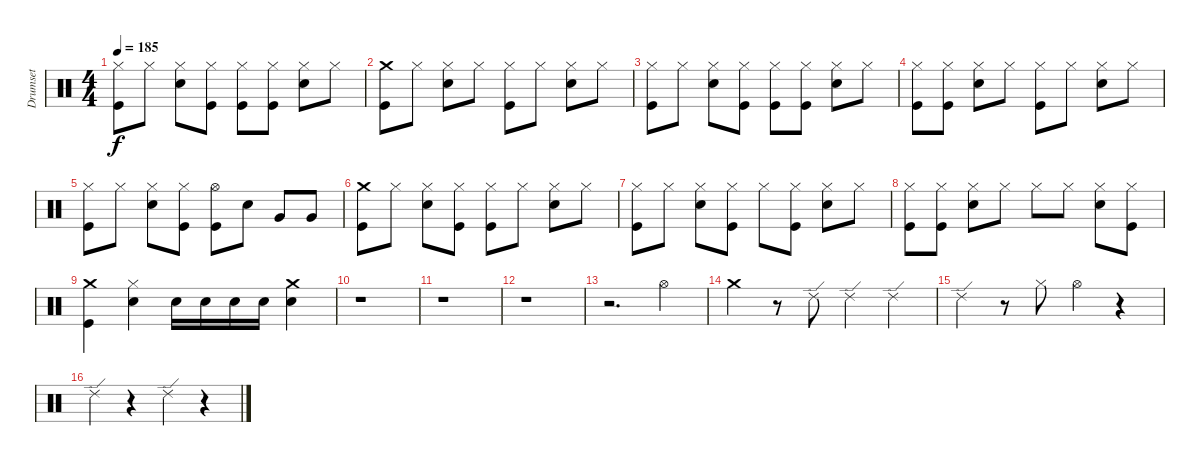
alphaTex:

\track ("Drumset" "Drumset") {instrument percussion}
\staff {score}
\articulation defaults
\ts (4 4)
\tempo 185
\clef neutral
\ks c
("Hi-Hat (closed)" "Kick (hit)").8{dy f} "Hi-Hat (closed)".8 ("Hi-Hat (closed)" "Snare (hit) 2").8 ("Hi-Hat (closed)" "Kick (hit)").8 ("Hi-Hat (closed)" "Kick (hit)").8 ("Hi-Hat (closed)" "Kick (hit)").8 ("Hi-Hat (closed)" "Snare (hit) 2").8 "Hi-Hat (closed)".8 |
("Crash medium (hit)" "Kick (hit)").8 "Hi-Hat (closed)".8 ("Hi-Hat (closed)" "Snare (hit) 2").8 "Hi-Hat (closed)".8 ("Hi-Hat (closed)" "Kick (hit)").8 "Hi-Hat (closed)".8 ("Hi-Hat (closed)" "Snare (hit) 2").8 "Hi-Hat (closed)".8 |
("Hi-Hat (closed)" "Kick (hit)").8 "Hi-Hat (closed)".8 ("Hi-Hat (closed)" "Snare (hit) 2").8 ("Hi-Hat (closed)" "Kick (hit)").8 ("Hi-Hat (closed)" "Kick (hit)").8 ("Hi-Hat (closed)" "Kick (hit)").8 ("Hi-Hat (closed)" "Snare (hit) 2").8 "Hi-Hat (closed)".8 |
("Hi-Hat (closed)" "Kick (hit)").8 ("Hi-Hat (closed)" "Kick (hit)").8 ("Hi-Hat (closed)" "Snare (hit) 2").8 "Hi-Hat (closed)".8 ("Hi-Hat (closed)" "Kick (hit)").8 "Hi-Hat (closed)".8 ("Hi-Hat (closed)" "Snare (hit) 2").8 "Hi-Hat (closed)".8 |
("Hi-Hat (closed)" "Kick (hit)").8 "Hi-Hat (closed)".8 ("Hi-Hat (closed)" "Snare (hit) 2").8 ("Hi-Hat (closed)" "Kick (hit)").8 ("Hi-Hat (open)" "Kick (hit)").8 "Snare (hit) 2".8 "Very Low Tom (hit)".8 "Very Low Tom (hit)".8 |
("Crash medium (hit)" "Kick (hit)").8 "Hi-Hat (closed)".8 ("Hi-Hat (closed)" "Snare (hit) 2").8 ("Hi-Hat (closed)" "Kick (hit)").8 ("Hi-Hat (closed)" "Kick (hit)").8 "Hi-Hat (closed)".8 ("Hi-Hat (closed)" "Snare (hit) 2").8 "Hi-Hat (closed)".8 |
("Hi-Hat (closed)" "Kick (hit)").8 "Hi-Hat (closed)".8 ("Hi-Hat (closed)" "Snare (hit) 2").8 ("Hi-Hat (closed)" "Kick (hit)").8 "Hi-Hat (closed)".8 ("Hi-Hat (closed)" "Kick (hit)").8 ("Hi-Hat (closed)" "Snare (hit) 2").8 "Hi-Hat (closed)".8 |
("Hi-Hat (closed)" "Kick (hit)").8 ("Hi-Hat (closed)" "Kick (hit)").8 ("Hi-Hat (closed)" "Snare (hit) 2").8 "Hi-Hat (closed)".8 "Hi-Hat (closed)".8 "Hi-Hat (closed)".8 ("Hi-Hat (closed)" "Snare (hit) 2").8 ("Hi-Hat (closed)" "Kick (hit)").8 |
("Crash medium (hit)" "Kick (hit)").4 ("Hi-Hat (closed)" "Snare (hit) 2").4 "Snare (hit) 2".16 "Snare (hit) 2".16 "Snare (hit) 2".16 "Snare (hit) 2".16 ("Crash medium (hit)" "Snare (hit) 2").4 |
r.1 |
r.1 |
r.1 |
r.2{d} "Hi-Hat (open)".4 |
"Crash medium (hit)".4 r.8 "Ride (edge) 2".8 "Ride (edge) 2".4 "Ride (edge) 2".4 |
"Ride (edge) 2".4 r.8 "Hi-Hat (closed)".8 "Hi-Hat (open)".4 r.4 |
"Ride (edge) 2".4 r.4 "Ride (edge) 2".4 r.4
